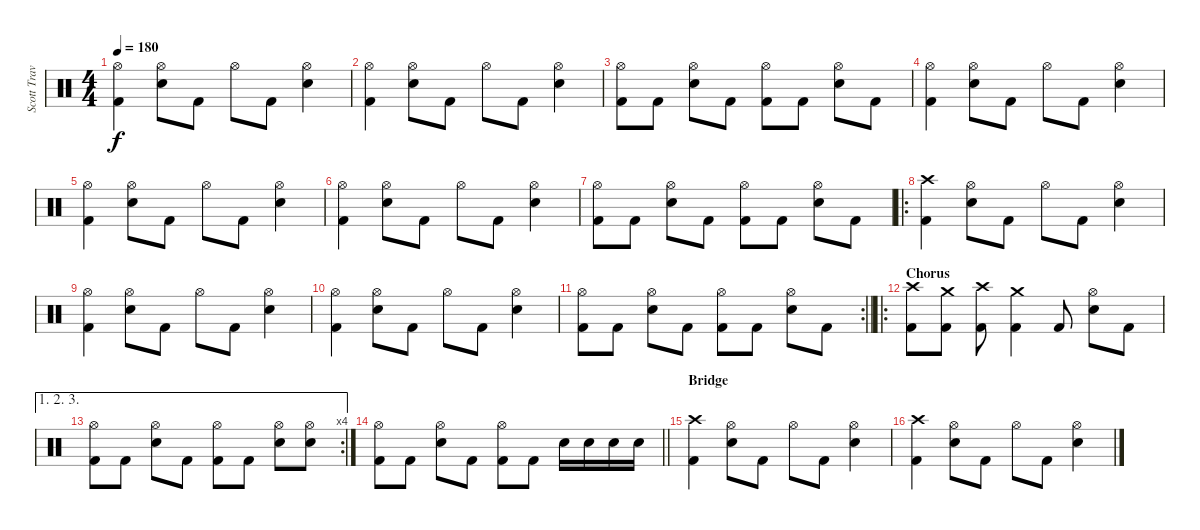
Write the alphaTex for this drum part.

\track ("Scott Travis" "Scott Trav") {instrument percussion}
\staff {score}
\articulation defaults
\ts (4 4)
\tempo 180
\clef neutral
\ks c
("Hi-Hat (open)" "Kick (hit) 2").4{dy f} ("Hi-Hat (open)" "Snare (hit) 2").8 "Kick (hit) 2".8 "Hi-Hat (open)".8 "Kick (hit) 2".8 ("Hi-Hat (open)" "Snare (hit) 2").4 |
("Hi-Hat (open)" "Kick (hit) 2").4 ("Hi-Hat (open)" "Snare (hit) 2").8 "Kick (hit) 2".8 "Hi-Hat (open)".8 "Kick (hit) 2".8 ("Hi-Hat (open)" "Snare (hit) 2").4 |
("Hi-Hat (open)" "Kick (hit) 2").8 "Kick (hit) 2".8 ("Hi-Hat (open)" "Snare (hit) 2").8 "Kick (hit) 2".8 ("Hi-Hat (open)" "Kick (hit) 2").8 "Kick (hit) 2".8 ("Hi-Hat (open)" "Snare (hit) 2").8 "Kick (hit) 2".8 |
("Hi-Hat (open)" "Kick (hit) 2").4 ("Hi-Hat (open)" "Snare (hit) 2").8 "Kick (hit) 2".8 "Hi-Hat (open)".8 "Kick (hit) 2".8 ("Hi-Hat (open)" "Snare (hit) 2").4 |
("Hi-Hat (open)" "Kick (hit) 2").4 ("Hi-Hat (open)" "Snare (hit) 2").8 "Kick (hit) 2".8 "Hi-Hat (open)".8 "Kick (hit) 2".8 ("Hi-Hat (open)" "Snare (hit) 2").4 |
("Hi-Hat (open)" "Kick (hit) 2").4 ("Hi-Hat (open)" "Snare (hit) 2").8 "Kick (hit) 2".8 "Hi-Hat (open)".8 "Kick (hit) 2".8 ("Hi-Hat (open)" "Snare (hit) 2").4 |
("Hi-Hat (open)" "Kick (hit) 2").8 "Kick (hit) 2".8 ("Hi-Hat (open)" "Snare (hit) 2").8 "Kick (hit) 2".8 ("Hi-Hat (open)" "Kick (hit) 2").8 "Kick (hit) 2".8 ("Hi-Hat (open)" "Snare (hit) 2").8 "Kick (hit) 2".8 |
\ro
("Crash high (hit)" "Kick (hit) 2").4 ("Hi-Hat (open)" "Snare (hit) 2").8 "Kick (hit) 2".8 "Hi-Hat (open)".8 "Kick (hit) 2".8 ("Hi-Hat (open)" "Snare (hit) 2").4 |
("Hi-Hat (open)" "Kick (hit) 2").4 ("Hi-Hat (open)" "Snare (hit) 2").8 "Kick (hit) 2".8 "Hi-Hat (open)".8 "Kick (hit) 2".8 ("Hi-Hat (open)" "Snare (hit) 2").4 |
("Hi-Hat (open)" "Kick (hit) 2").4 ("Hi-Hat (open)" "Snare (hit) 2").8 "Kick (hit) 2".8 "Hi-Hat (open)".8 "Kick (hit) 2".8 ("Hi-Hat (open)" "Snare (hit) 2").4 |
\rc 2
\barLineRight lightlight
("Hi-Hat (open)" "Kick (hit) 2").8 "Kick (hit) 2".8 ("Hi-Hat (open)" "Snare (hit) 2").8 "Kick (hit) 2".8 ("Hi-Hat (open)" "Kick (hit) 2").8 "Kick (hit) 2".8 ("Hi-Hat (open)" "Snare (hit) 2").8 "Kick (hit) 2".8 |
\ro
\section ("" "Chorus")
("Crash high (hit)" "Kick (hit) 2").8 ("Crash medium (hit)" "Kick (hit) 2").8 ("Crash high (hit)" "Kick (hit) 2").8 ("Crash medium (hit)" "Kick (hit) 2").4 "Kick (hit) 2".8 ("Hi-Hat (open)" "Snare (hit) 2").8 "Kick (hit) 2".8 |
\ae (1 2 3)
\rc 4
("Hi-Hat (open)" "Kick (hit) 2").8 "Kick (hit) 2".8 ("Hi-Hat (open)" "Snare (hit) 2").8 "Kick (hit) 2".8 ("Hi-Hat (open)" "Kick (hit) 2").8 "Kick (hit) 2".8 ("Hi-Hat (open)" "Snare (hit) 2").8 ("Hi-Hat (open)" "Snare (hit) 2").8 |
\barLineRight lightlight
("Hi-Hat (open)" "Kick (hit) 2").8 "Kick (hit) 2".8 ("Hi-Hat (open)" "Snare (hit) 2").8 "Kick (hit) 2".8 ("Hi-Hat (open)" "Kick (hit) 2").8 "Kick (hit) 2".8 "Snare (hit) 2".16 "Snare (hit) 2".16 "Snare (hit) 2".16 "Snare (hit) 2".16 |
\section ("" "Bridge")
("Crash high (hit)" "Kick (hit) 2").4 ("Hi-Hat (open)" "Snare (hit) 2").8 "Kick (hit) 2".8 "Hi-Hat (open)".8 "Kick (hit) 2".8 ("Hi-Hat (open)" "Snare (hit) 2").4 |
("Crash high (hit)" "Kick (hit) 2").4 ("Hi-Hat (open)" "Snare (hit) 2").8 "Kick (hit) 2".8 "Hi-Hat (open)".8 "Kick (hit) 2".8 ("Hi-Hat (open)" "Snare (hit) 2").4
